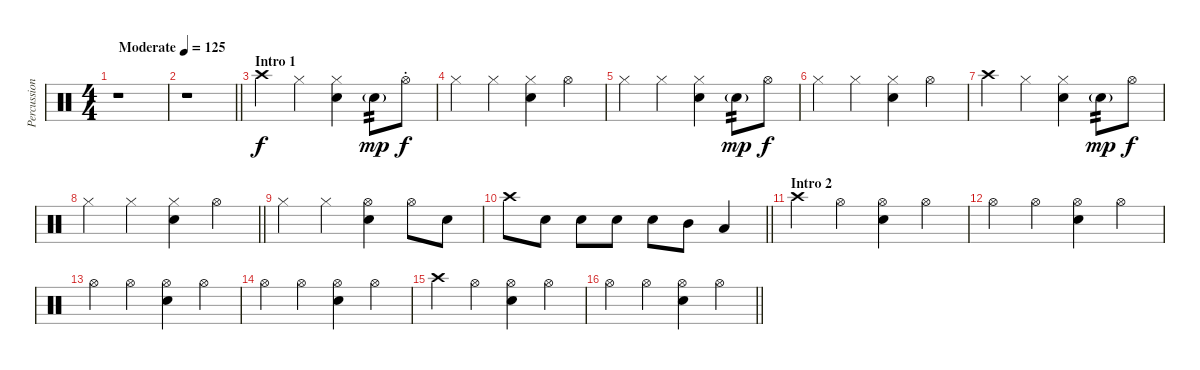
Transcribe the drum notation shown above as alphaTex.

\track ("Percussion" "Percussion") {instrument percussion}
\staff {score}
\articulation defaults
\ts (4 4)
\tempo (125 "Moderate")
\clef neutral
\ks c
r.1{dy f} |
\barLineRight lightlight
r.1 |
\section ("" "Intro 1")
"Crash high (hit)".4 "Hi-Hat (closed)".4 ("Hi-Hat (closed)" "Snare (hit) 2").4 "Snare (hit) 2"{g}.8{tp 2 dy mp} "Hi-Hat (open)"{st}.8{dy f} |
"Hi-Hat (closed)".4 "Hi-Hat (closed)".4 ("Hi-Hat (closed)" "Snare (hit) 2").4 "Hi-Hat (open)".4 |
"Hi-Hat (closed)".4 "Hi-Hat (closed)".4 ("Hi-Hat (closed)" "Snare (hit) 2").4 "Snare (hit) 2"{g}.8{tp 2 dy mp} "Hi-Hat (open)".8{dy f} |
"Hi-Hat (closed)".4 "Hi-Hat (closed)".4 ("Hi-Hat (closed)" "Snare (hit) 2").4 "Hi-Hat (open)".4 |
"Crash high (hit)".4 "Hi-Hat (closed)".4 ("Hi-Hat (closed)" "Snare (hit) 2").4 "Snare (hit) 2"{g}.8{tp 2 dy mp} "Hi-Hat (open)".8{dy f} |
\barLineRight lightlight "Hi-Hat (closed)".4 "Hi-Hat (closed)".4
("Hi-Hat (closed)" "Snare (hit) 2").4 "Hi-Hat (open)".4 |
"Hi-Hat (closed)".4 "Hi-Hat (closed)".4 ("Hi-Hat (open)" "Snare (hit) 2").4 "Hi-Hat (open)".8 "Snare (hit) 2".8 |
\barLineRight lightlight "Crash high (hit)".8 "Snare (hit) 2".8 "Snare (hit) 2".8 "Snare (hit) 2".8 "Snare (hit) 2".8 "Mid Tom (hit)".8 "Low Tom (hit)".4
|
\section ("" "Intro 2")
"Crash high (hit)".4 "Hi-Hat (open)".4 ("Hi-Hat (open)" "Snare (hit) 2").4 "Hi-Hat (open)".4 |
"Hi-Hat (open)".4 "Hi-Hat (open)".4 ("Hi-Hat (open)" "Snare (hit) 2").4 "Hi-Hat (open)".4 |
"Hi-Hat (open)".4 "Hi-Hat (open)".4 ("Hi-Hat (open)" "Snare (hit) 2").4 "Hi-Hat (open)".4 |
"Hi-Hat (open)".4 "Hi-Hat (open)".4 ("Hi-Hat (open)" "Snare (hit) 2").4 "Hi-Hat (open)".4 |
"Crash high (hit)".4 "Hi-Hat (open)".4 ("Hi-Hat (open)" "Snare (hit) 2").4 "Hi-Hat (open)".4 |
\barLineRight lightlight "Hi-Hat (open)".4 "Hi-Hat (open)".4
("Hi-Hat (open)" "Snare (hit) 2").4 "Hi-Hat (open)".4
